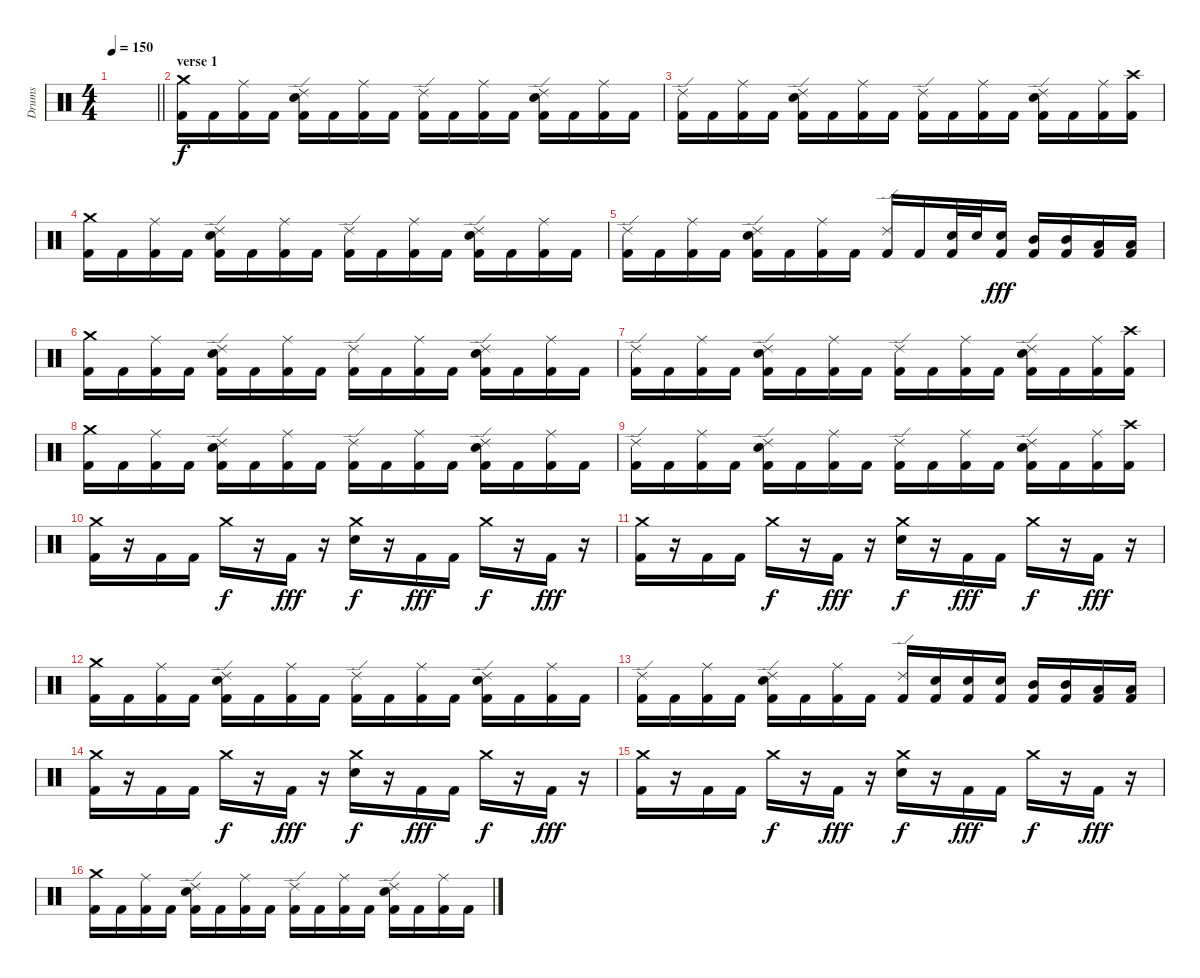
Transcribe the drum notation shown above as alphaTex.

\track ("Drums" "Drums") {instrument percussion}
\staff {score}
\articulation defaults
\ts (4 4)
\tempo 150
\clef neutral
\barLineRight lightlight
\ks c
|
\section ("" "verse 1")
("Crash medium (hit)" "Kick (hit) 2").16 "Kick (hit) 2".16 ("Ride (middle)" "Kick (hit) 2").16 "Kick (hit) 2".16 ("Ride (edge) 2" "Electric Snare (hit)" "Kick (hit) 2").16 "Kick (hit) 2".16 ("Ride (middle)" "Kick (hit) 2").16 "Kick (hit) 2".16 ("Ride (edge) 2" "Kick (hit) 2").16 "Kick (hit) 2".16 ("Ride (middle)" "Kick (hit) 2").16 "Kick (hit) 2".16 ("Ride (edge) 2" "Electric Snare (hit)" "Kick (hit) 2").16 "Kick (hit) 2".16 ("Ride (middle)" "Kick (hit) 2").16 "Kick (hit) 2".16 |
("Ride (edge) 2" "Kick (hit) 2").16 "Kick (hit) 2".16 ("Ride (middle)" "Kick (hit) 2").16 "Kick (hit) 2".16 ("Ride (edge) 2" "Electric Snare (hit)" "Kick (hit) 2").16 "Kick (hit) 2".16 ("Ride (middle)" "Kick (hit) 2").16 "Kick (hit) 2".16 ("Ride (edge) 2" "Kick (hit) 2").16 "Kick (hit) 2".16 ("Ride (middle)" "Kick (hit) 2").16 "Kick (hit) 2".16 ("Ride (edge) 2" "Electric Snare (hit)" "Kick (hit) 2").16 "Kick (hit) 2".16 ("Ride (middle)" "Kick (hit) 2").16 ("Crash high (hit)" "Kick (hit) 2").16 |
("Crash medium (hit)" "Kick (hit) 2").16 "Kick (hit) 2".16 ("Ride (middle)" "Kick (hit) 2").16 "Kick (hit) 2".16 ("Ride (edge) 2" "Electric Snare (hit)" "Kick (hit) 2").16 "Kick (hit) 2".16 ("Ride (middle)" "Kick (hit) 2").16 "Kick (hit) 2".16 ("Ride (edge) 2" "Kick (hit) 2").16 "Kick (hit) 2".16 ("Ride (middle)" "Kick (hit) 2").16 "Kick (hit) 2".16 ("Ride (edge) 2" "Electric Snare (hit)" "Kick (hit) 2").16 "Kick (hit) 2".16 ("Ride (middle)" "Kick (hit) 2").16 "Kick (hit) 2".16 |
("Ride (edge) 2" "Kick (hit) 2").16 "Kick (hit) 2".16 ("Ride (middle)" "Kick (hit) 2").16 "Kick (hit) 2".16 ("Ride (edge) 2" "Electric Snare (hit)" "Kick (hit) 2").16 "Kick (hit) 2".16 ("Ride (middle)" "Kick (hit) 2").16 "Kick (hit) 2".16 ("Ride (edge) 2" "Kick (hit) 2").16 "Kick (hit) 2".16 ("Electric Snare (hit)" "Kick (hit) 2").32 "Electric Snare (hit)".32{dy f} ("Electric Snare (hit)" "Kick (hit) 2").16{dy fff} ("Mid Tom (hit)" "Kick (hit) 2").16 ("Mid Tom (hit)" "Kick (hit) 2").16 ("Low Tom (hit)" "Kick (hit) 2").16 ("Low Tom (hit)" "Kick (hit) 2").16 |
("Crash medium (hit)" "Kick (hit) 2").16 "Kick (hit) 2".16 ("Ride (middle)" "Kick (hit) 2").16 "Kick (hit) 2".16 ("Ride (edge) 2" "Electric Snare (hit)" "Kick (hit) 2").16 "Kick (hit) 2".16 ("Ride (middle)" "Kick (hit) 2").16 "Kick (hit) 2".16 ("Ride (edge) 2" "Kick (hit) 2").16 "Kick (hit) 2".16 ("Ride (middle)" "Kick (hit) 2").16 "Kick (hit) 2".16 ("Ride (edge) 2" "Electric Snare (hit)" "Kick (hit) 2").16 "Kick (hit) 2".16 ("Ride (middle)" "Kick (hit) 2").16 "Kick (hit) 2".16 |
("Ride (edge) 2" "Kick (hit) 2").16 "Kick (hit) 2".16 ("Ride (middle)" "Kick (hit) 2").16 "Kick (hit) 2".16 ("Ride (edge) 2" "Electric Snare (hit)" "Kick (hit) 2").16 "Kick (hit) 2".16 ("Ride (middle)" "Kick (hit) 2").16 "Kick (hit) 2".16 ("Ride (edge) 2" "Kick (hit) 2").16 "Kick (hit) 2".16 ("Ride (middle)" "Kick (hit) 2").16 "Kick (hit) 2".16 ("Ride (edge) 2" "Electric Snare (hit)" "Kick (hit) 2").16 "Kick (hit) 2".16 ("Ride (middle)" "Kick (hit) 2").16 ("Crash high (hit)" "Kick (hit) 2").16 |
("Crash medium (hit)" "Kick (hit) 2").16 "Kick (hit) 2".16 ("Ride (middle)" "Kick (hit) 2").16 "Kick (hit) 2".16 ("Ride (edge) 2" "Electric Snare (hit)" "Kick (hit) 2").16 "Kick (hit) 2".16 ("Ride (middle)" "Kick (hit) 2").16 "Kick (hit) 2".16 ("Ride (edge) 2" "Kick (hit) 2").16 "Kick (hit) 2".16 ("Ride (middle)" "Kick (hit) 2").16 "Kick (hit) 2".16 ("Ride (edge) 2" "Electric Snare (hit)" "Kick (hit) 2").16 "Kick (hit) 2".16 ("Ride (middle)" "Kick (hit) 2").16 "Kick (hit) 2".16 |
("Ride (edge) 2" "Kick (hit) 2").16 "Kick (hit) 2".16 ("Ride (middle)" "Kick (hit) 2").16 "Kick (hit) 2".16 ("Ride (edge) 2" "Electric Snare (hit)" "Kick (hit) 2").16 "Kick (hit) 2".16 ("Ride (middle)" "Kick (hit) 2").16 "Kick (hit) 2".16 ("Ride (edge) 2" "Kick (hit) 2").16 "Kick (hit) 2".16 ("Ride (middle)" "Kick (hit) 2").16 "Kick (hit) 2".16 ("Ride (edge) 2" "Electric Snare (hit)" "Kick (hit) 2").16 "Kick (hit) 2".16 ("Ride (middle)" "Kick (hit) 2").16 ("Crash high (hit)" "Kick (hit) 2").16 |
("Crash medium (hit)" "Kick (hit) 2").16 r.16 "Kick (hit) 2".16 "Kick (hit) 2".16 "Crash medium (hit)".16{dy f} r.16 "Kick (hit) 2".16{dy fff} r.16 ("Crash medium (hit)" "Electric Snare (hit)").16{dy f} r.16 "Kick (hit) 2".16{dy fff} "Kick (hit) 2".16 "Crash medium (hit)".16{dy f} r.16 "Kick (hit) 2".16{dy fff} r.16 |
("Crash medium (hit)" "Kick (hit) 2").16 r.16 "Kick (hit) 2".16 "Kick (hit) 2".16 "Crash medium (hit)".16{dy f} r.16 "Kick (hit) 2".16{dy fff} r.16 ("Crash medium (hit)" "Electric Snare (hit)").16{dy f} r.16 "Kick (hit) 2".16{dy fff} "Kick (hit) 2".16 "Crash medium (hit)".16{dy f} r.16 "Kick (hit) 2".16{dy fff} r.16 |
("Crash medium (hit)" "Kick (hit) 2").16 "Kick (hit) 2".16 ("Ride (middle)" "Kick (hit) 2").16 "Kick (hit) 2".16 ("Ride (edge) 2" "Electric Snare (hit)" "Kick (hit) 2").16 "Kick (hit) 2".16 ("Ride (middle)" "Kick (hit) 2").16 "Kick (hit) 2".16 ("Ride (edge) 2" "Kick (hit) 2").16 "Kick (hit) 2".16 ("Ride (middle)" "Kick (hit) 2").16 "Kick (hit) 2".16 ("Ride (edge) 2" "Electric Snare (hit)" "Kick (hit) 2").16 "Kick (hit) 2".16 ("Ride (middle)" "Kick (hit) 2").16 "Kick (hit) 2".16 |
("Ride (edge) 2" "Kick (hit) 2").16 "Kick (hit) 2".16 ("Ride (middle)" "Kick (hit) 2").16 "Kick (hit) 2".16 ("Ride (edge) 2" "Electric Snare (hit)" "Kick (hit) 2").16 "Kick (hit) 2".16 ("Ride (middle)" "Kick (hit) 2").16 "Kick (hit) 2".16 ("Ride (edge) 2" "Kick (hit) 2").16 ("Electric Snare (hit)" "Kick (hit) 2").16 ("Electric Snare (hit)" "Kick (hit) 2").16 ("Electric Snare (hit)" "Kick (hit) 2").16 ("Mid Tom (hit)" "Kick (hit) 2").16 ("Mid Tom (hit)" "Kick (hit) 2").16 ("Low Tom (hit)" "Kick (hit) 2").16 ("Low Tom (hit)" "Kick (hit) 2").16 |
("Crash medium (hit)" "Kick (hit) 2").16 r.16 "Kick (hit) 2".16 "Kick (hit) 2".16 "Crash medium (hit)".16{dy f} r.16 "Kick (hit) 2".16{dy fff} r.16 ("Crash medium (hit)" "Electric Snare (hit)").16{dy f} r.16 "Kick (hit) 2".16{dy fff} "Kick (hit) 2".16 "Crash medium (hit)".16{dy f} r.16 "Kick (hit) 2".16{dy fff} r.16 |
("Crash medium (hit)" "Kick (hit) 2").16 r.16 "Kick (hit) 2".16 "Kick (hit) 2".16 "Crash medium (hit)".16{dy f} r.16 "Kick (hit) 2".16{dy fff} r.16 ("Crash medium (hit)" "Electric Snare (hit)").16{dy f} r.16 "Kick (hit) 2".16{dy fff} "Kick (hit) 2".16 "Crash medium (hit)".16{dy f} r.16 "Kick (hit) 2".16{dy fff} r.16 |
("Crash medium (hit)" "Kick (hit) 2").16 "Kick (hit) 2".16 ("Ride (middle)" "Kick (hit) 2").16 "Kick (hit) 2".16 ("Ride (edge) 2" "Electric Snare (hit)" "Kick (hit) 2").16 "Kick (hit) 2".16 ("Ride (middle)" "Kick (hit) 2").16 "Kick (hit) 2".16 ("Ride (edge) 2" "Kick (hit) 2").16 "Kick (hit) 2".16 ("Ride (middle)" "Kick (hit) 2").16 "Kick (hit) 2".16 ("Ride (edge) 2" "Electric Snare (hit)" "Kick (hit) 2").16 "Kick (hit) 2".16 ("Ride (middle)" "Kick (hit) 2").16 "Kick (hit) 2".16
